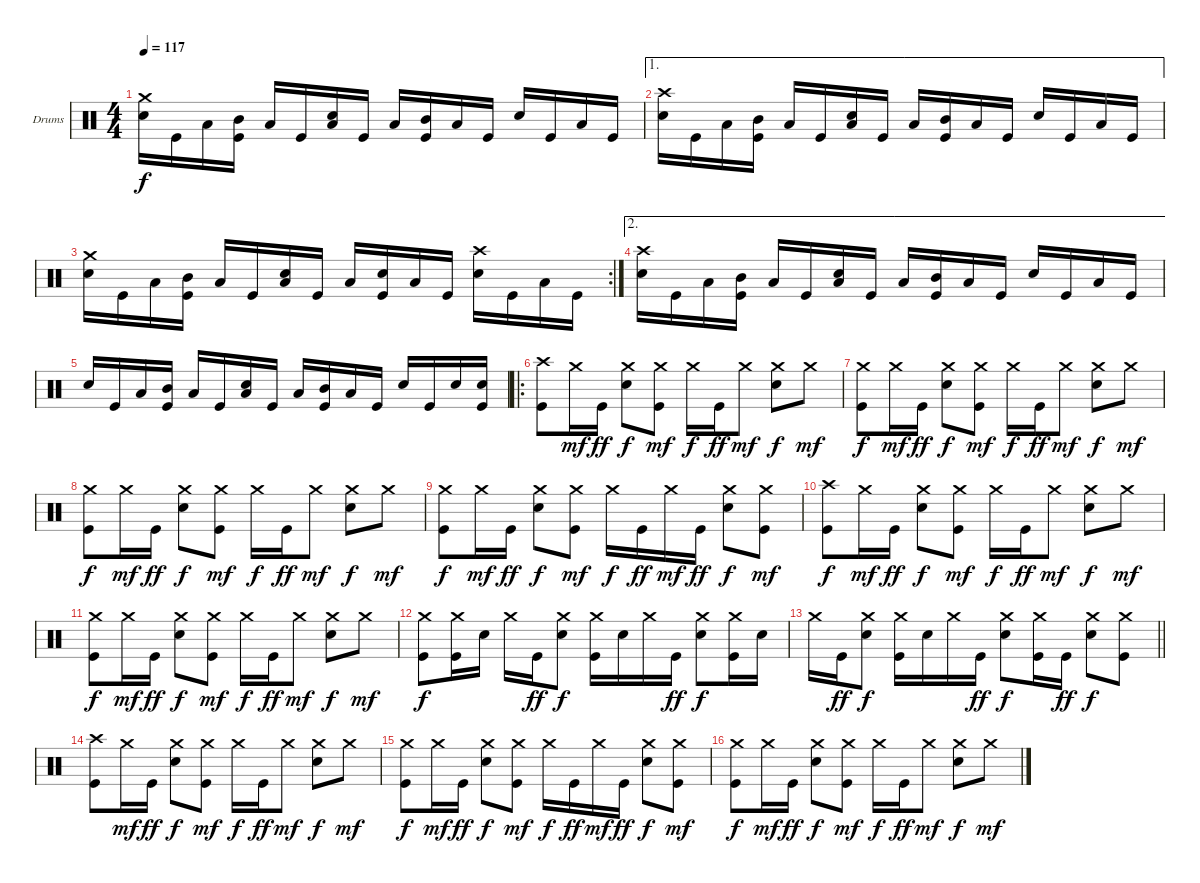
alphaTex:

\bracketExtendMode groupsimilarinstruments
\firstSystemTrackNameOrientation horizontal
\otherSystemsTrackNameOrientation horizontal
\track ("Dominic Drums" "Drums") {instrument percussion}
\staff {score}
\articulation defaults
\ts (4 4)
\tempo 117
\clef neutral
\ks c
("Crash medium (hit)" "Snare (hit) 2").16{dy f} "Kick (hit)".16 "Low Tom (hit)".16 ("Mid Tom (hit)" "Kick (hit)").16 "Low Tom (hit)".16 "Kick (hit)".16 ("Snare (hit) 2" "Low Tom (hit)").16 "Kick (hit)".16 "Low Tom (hit)".16 ("Mid Tom (hit)" "Kick (hit)").16 "Low Tom (hit)".16 "Kick (hit)".16 "Snare (hit) 2".16 "Kick (hit)".16 "Low Tom (hit)".16 "Kick (hit)".16 |
\ae 1
("Crash high (hit)" "Snare (hit) 2").16 "Kick (hit)".16 "Low Tom (hit)".16 ("Mid Tom (hit)" "Kick (hit)").16 "Low Tom (hit)".16 "Kick (hit)".16 ("Snare (hit) 2" "Low Tom (hit)").16 "Kick (hit)".16 "Low Tom (hit)".16 ("Mid Tom (hit)" "Kick (hit)").16 "Low Tom (hit)".16 "Kick (hit)".16 "Snare (hit) 2".16 "Kick (hit)".16 "Low Tom (hit)".16 "Kick (hit)".16 |
\rc 2
("Crash medium (hit)" "Snare (hit) 2").16 "Kick (hit)".16 "Low Tom (hit)".16 ("Mid Tom (hit)" "Kick (hit)").16 "Low Tom (hit)".16 "Kick (hit)".16 ("Snare (hit) 2" "Low Tom (hit)").16 "Kick (hit)".16 "Low Tom (hit)".16 ("Snare (hit) 2" "Kick (hit)").16 "Low Tom (hit)".16 "Kick (hit)".16 ("Crash high (hit)" "Snare (hit) 2").16 "Kick (hit)".16 "Low Tom (hit)".16 "Kick (hit)".16 |
\ae 2
("Crash high (hit)" "Snare (hit) 2").16 "Kick (hit)".16 "Low Tom (hit)".16 ("Mid Tom (hit)" "Kick (hit)").16 "Low Tom (hit)".16 "Kick (hit)".16 ("Snare (hit) 2" "Low Tom (hit)").16 "Kick (hit)".16 "Low Tom (hit)".16 ("Mid Tom (hit)" "Kick (hit)").16 "Low Tom (hit)".16 "Kick (hit)".16 "Snare (hit) 2".16 "Kick (hit)".16 "Low Tom (hit)".16 "Kick (hit)".16 |
"Snare (hit) 2".16 "Kick (hit)".16 "Low Tom (hit)".16 ("Mid Tom (hit)" "Kick (hit)").16 "Low Tom (hit)".16 "Kick (hit)".16 ("Snare (hit) 2" "Low Tom (hit)").16 "Kick (hit)".16 "Low Tom (hit)".16 ("Mid Tom (hit)" "Kick (hit)").16 "Low Tom (hit)".16 "Kick (hit)".16 "Snare (hit) 2".16 "Kick (hit)".16 "Snare (hit) 2".16 ("Snare (hit) 2" "Kick (hit)").16 |
\ro
("Crash high (hit)" "Kick (hit)").8 "Crash medium (hit)".16{dy mf} "Kick (hit)".16{dy ff} ("Crash medium (hit)" "Snare (hit) 2").8{dy f} ("Crash medium (hit)" "Kick (hit)").8{dy mf} "Crash medium (hit)".16{dy f} "Kick (hit)".16{dy ff} "Crash medium (hit)".8{dy mf} ("Crash medium (hit)" "Snare (hit) 2").8{dy f} "Crash medium (hit)".8{dy mf} |
("Crash medium (hit)" "Kick (hit)").8{dy f} "Crash medium (hit)".16{dy mf} "Kick (hit)".16{dy ff} ("Crash medium (hit)" "Snare (hit) 2").8{dy f} ("Crash medium (hit)" "Kick (hit)").8{dy mf} "Crash medium (hit)".16{dy f} "Kick (hit)".16{dy ff} "Crash medium (hit)".8{dy mf} ("Crash medium (hit)" "Snare (hit) 2").8{dy f} "Crash medium (hit)".8{dy mf} |
("Crash medium (hit)" "Kick (hit)").8{dy f} "Crash medium (hit)".16{dy mf} "Kick (hit)".16{dy ff} ("Crash medium (hit)" "Snare (hit) 2").8{dy f} ("Crash medium (hit)" "Kick (hit)").8{dy mf} "Crash medium (hit)".16{dy f} "Kick (hit)".16{dy ff} "Crash medium (hit)".8{dy mf} ("Crash medium (hit)" "Snare (hit) 2").8{dy f} "Crash medium (hit)".8{dy mf} |
("Crash medium (hit)" "Kick (hit)").8{dy f} "Crash medium (hit)".16{dy mf} "Kick (hit)".16{dy ff} ("Crash medium (hit)" "Snare (hit) 2").8{dy f} ("Crash medium (hit)" "Kick (hit)").8{dy mf} "Crash medium (hit)".16{dy f} "Kick (hit)".16{dy ff} "Crash medium (hit)".16{dy mf} "Kick (hit)".16{dy ff} ("Crash medium (hit)" "Snare (hit) 2").8{dy f} ("Crash medium (hit)" "Kick (hit)").8{dy mf} |
("Crash high (hit)" "Kick (hit)").8{dy f} "Crash medium (hit)".16{dy mf} "Kick (hit)".16{dy ff} ("Crash medium (hit)" "Snare (hit) 2").8{dy f} ("Crash medium (hit)" "Kick (hit)").8{dy mf} "Crash medium (hit)".16{dy f} "Kick (hit)".16{dy ff} "Crash medium (hit)".8{dy mf} ("Crash medium (hit)" "Snare (hit) 2").8{dy f} "Crash medium (hit)".8{dy mf} |
("Crash medium (hit)" "Kick (hit)").8{dy f} "Crash medium (hit)".16{dy mf} "Kick (hit)".16{dy ff} ("Crash medium (hit)" "Snare (hit) 2").8{dy f} ("Crash medium (hit)" "Kick (hit)").8{dy mf} "Crash medium (hit)".16{dy f} "Kick (hit)".16{dy ff} "Crash medium (hit)".8{dy mf} ("Crash medium (hit)" "Snare (hit) 2").8{dy f} "Crash medium (hit)".8{dy mf} |
("Crash medium (hit)" "Kick (hit)").8{dy f} ("Crash medium (hit)" "Kick (hit)").16 "Snare (hit) 2".16 "Crash medium (hit)".16 "Kick (hit)".16{dy ff} ("Crash medium (hit)" "Snare (hit) 2").8{dy f} ("Crash medium (hit)" "Kick (hit)").16 "Snare (hit) 2".16 "Crash medium (hit)".16 "Kick (hit)".16{dy ff} ("Crash medium (hit)" "Snare (hit) 2").8{dy f} ("Crash medium (hit)" "Kick (hit)").16 "Snare (hit) 2".16 |
\barLineRight lightlight "Crash medium (hit)".16 "Kick (hit)".16{dy ff}
("Crash medium (hit)" "Snare (hit) 2").8{dy f} ("Crash medium (hit)" "Kick (hit)").16 "Snare (hit) 2".16 "Crash medium (hit)".16 "Kick (hit)".16{dy ff} ("Crash medium (hit)" "Snare (hit) 2").8{dy f} ("Crash medium (hit)" "Kick (hit)").16 "Kick (hit)".16{dy ff} ("Crash medium (hit)" "Snare (hit) 2").8{dy f} ("Crash medium (hit)" "Kick (hit)").8 |
("Crash high (hit)" "Kick (hit)").8 "Crash medium (hit)".16{dy mf} "Kick (hit)".16{dy ff} ("Crash medium (hit)" "Snare (hit) 2").8{dy f} ("Crash medium (hit)" "Kick (hit)").8{dy mf} "Crash medium (hit)".16{dy f} "Kick (hit)".16{dy ff} "Crash medium (hit)".8{dy mf} ("Crash medium (hit)" "Snare (hit) 2").8{dy f} "Crash medium (hit)".8{dy mf} |
("Crash medium (hit)" "Kick (hit)").8{dy f} "Crash medium (hit)".16{dy mf} "Kick (hit)".16{dy ff} ("Crash medium (hit)" "Snare (hit) 2").8{dy f} ("Crash medium (hit)" "Kick (hit)").8{dy mf} "Crash medium (hit)".16{dy f} "Kick (hit)".16{dy ff} "Crash medium (hit)".16{dy mf} "Kick (hit)".16{dy ff} ("Crash medium (hit)" "Snare (hit) 2").8{dy f} ("Crash medium (hit)" "Kick (hit)").8{dy mf} |
("Crash medium (hit)" "Kick (hit)").8{dy f} "Crash medium (hit)".16{dy mf} "Kick (hit)".16{dy ff} ("Crash medium (hit)" "Snare (hit) 2").8{dy f} ("Crash medium (hit)" "Kick (hit)").8{dy mf} "Crash medium (hit)".16{dy f} "Kick (hit)".16{dy ff} "Crash medium (hit)".8{dy mf} ("Crash medium (hit)" "Snare (hit) 2").8{dy f} "Crash medium (hit)".8{dy mf}
